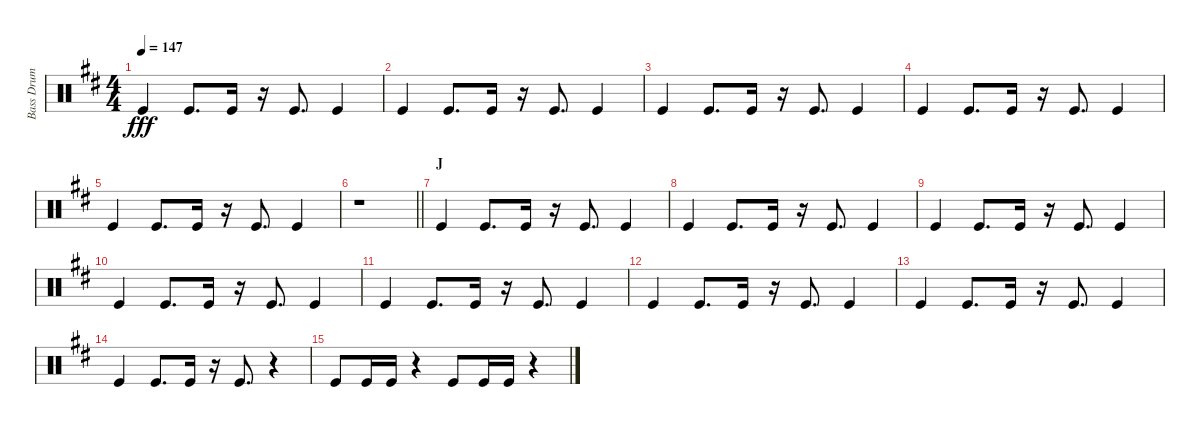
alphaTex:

\track ("Bass Drum" "Bass Drum") {instrument percussion}
\staff {score}
\articulation defaults
\ts (4 4)
\tempo 147
\clef neutral
\ks d "Kick (hit)".4{dy fff} "Kick (hit)".8{d} "Kick (hit)".16
r.16 "Kick (hit)".8{d} "Kick (hit)".4 |
"Kick (hit)".4 "Kick (hit)".8{d} "Kick (hit)".16 r.16 "Kick (hit)".8{d} "Kick (hit)".4 |
"Kick (hit)".4 "Kick (hit)".8{d} "Kick (hit)".16 r.16 "Kick (hit)".8{d} "Kick (hit)".4 |
"Kick (hit)".4 "Kick (hit)".8{d} "Kick (hit)".16 r.16 "Kick (hit)".8{d} "Kick (hit)".4 |
"Kick (hit)".4 "Kick (hit)".8{d} "Kick (hit)".16 r.16 "Kick (hit)".8{d} "Kick (hit)".4 |
\barLineRight lightlight
r.1 |
\section ("" "J")
"Kick (hit)".4 "Kick (hit)".8{d} "Kick (hit)".16 r.16 "Kick (hit)".8{d} "Kick (hit)".4 |
"Kick (hit)".4 "Kick (hit)".8{d} "Kick (hit)".16 r.16 "Kick (hit)".8{d} "Kick (hit)".4 |
"Kick (hit)".4 "Kick (hit)".8{d} "Kick (hit)".16 r.16 "Kick (hit)".8{d} "Kick (hit)".4 |
"Kick (hit)".4 "Kick (hit)".8{d} "Kick (hit)".16 r.16 "Kick (hit)".8{d} "Kick (hit)".4 |
"Kick (hit)".4 "Kick (hit)".8{d} "Kick (hit)".16 r.16 "Kick (hit)".8{d} "Kick (hit)".4 |
"Kick (hit)".4 "Kick (hit)".8{d} "Kick (hit)".16 r.16 "Kick (hit)".8{d} "Kick (hit)".4 |
"Kick (hit)".4 "Kick (hit)".8{d} "Kick (hit)".16 r.16 "Kick (hit)".8{d} "Kick (hit)".4 |
"Kick (hit)".4 "Kick (hit)".8{d} "Kick (hit)".16 r.16 "Kick (hit)".8{d} r.4 |
"Kick (hit)".8 "Kick (hit)".16 "Kick (hit)".16 r.4 "Kick (hit)".8 "Kick (hit)".16 "Kick (hit)".16 r.4
